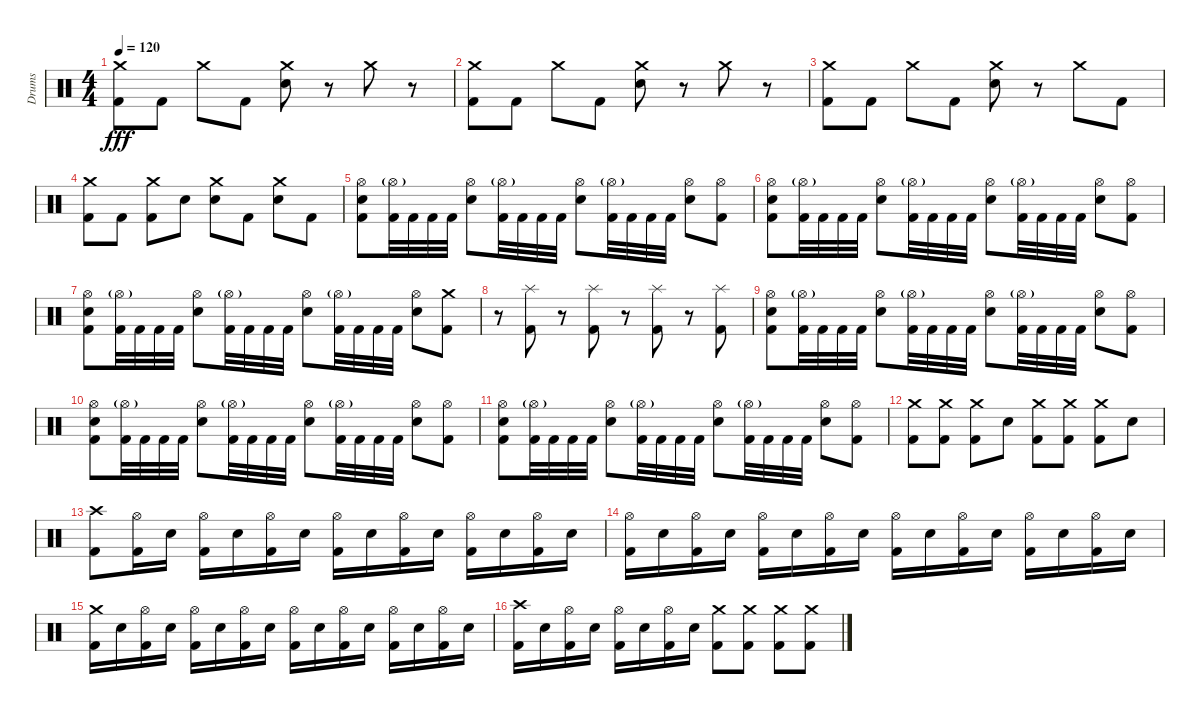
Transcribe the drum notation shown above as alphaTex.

\track ("Drums" "Drums") {instrument percussion}
\staff {score}
\articulation defaults
\ts (4 4)
\tempo 120
\clef neutral
\ks c
("Crash medium (hit)" "Kick (hit) 2").8{dy fff} "Kick (hit) 2".8 "Crash medium (hit)".8 "Kick (hit) 2".8 ("Crash medium (hit)" "Electric Snare (hit)").8 r.8 "Crash medium (hit)".8 r.8 |
("Crash medium (hit)" "Kick (hit) 2").8 "Kick (hit) 2".8 "Crash medium (hit)".8 "Kick (hit) 2".8 ("Crash medium (hit)" "Electric Snare (hit)").8 r.8 "Crash medium (hit)".8 r.8 |
("Crash medium (hit)" "Kick (hit) 2").8 "Kick (hit) 2".8 "Crash medium (hit)".8 "Kick (hit) 2".8 ("Crash medium (hit)" "Electric Snare (hit)").8 r.8 "Crash medium (hit)".8 "Kick (hit) 2".8 |
("Crash medium (hit)" "Kick (hit) 2").8 "Kick (hit) 2".8 ("Crash medium (hit)" "Kick (hit) 2").8 "Electric Snare (hit)".8 ("Crash medium (hit)" "Electric Snare (hit)").8 "Kick (hit) 2".8 ("Crash medium (hit)" "Electric Snare (hit)").8 "Kick (hit) 2".8 |
("Hi-Hat (open)" "Electric Snare (hit)" "Kick (hit) 2").8 ("Hi-Hat (open)"{g} "Kick (hit) 2").32 "Kick (hit) 2".32 "Kick (hit) 2".32 "Kick (hit) 2".32 ("Hi-Hat (open)" "Electric Snare (hit)").8 ("Hi-Hat (open)"{g} "Kick (hit) 2").32 "Kick (hit) 2".32 "Kick (hit) 2".32 "Kick (hit) 2".32 ("Hi-Hat (open)" "Electric Snare (hit)").8 ("Hi-Hat (open)"{g} "Kick (hit) 2").32 "Kick (hit) 2".32 "Kick (hit) 2".32 "Kick (hit) 2".32 ("Hi-Hat (open)" "Electric Snare (hit)").8 ("Hi-Hat (open)" "Kick (hit) 2").8 |
("Hi-Hat (open)" "Electric Snare (hit)" "Kick (hit) 2").8 ("Hi-Hat (open)"{g} "Kick (hit) 2").32 "Kick (hit) 2".32 "Kick (hit) 2".32 "Kick (hit) 2".32 ("Hi-Hat (open)" "Electric Snare (hit)").8 ("Hi-Hat (open)"{g} "Kick (hit) 2").32 "Kick (hit) 2".32 "Kick (hit) 2".32 "Kick (hit) 2".32 ("Hi-Hat (open)" "Electric Snare (hit)").8 ("Hi-Hat (open)"{g} "Kick (hit) 2").32 "Kick (hit) 2".32 "Kick (hit) 2".32 "Kick (hit) 2".32 ("Hi-Hat (open)" "Electric Snare (hit)").8 ("Hi-Hat (open)" "Kick (hit) 2").8 |
("Hi-Hat (open)" "Electric Snare (hit)" "Kick (hit) 2").8 ("Hi-Hat (open)"{g} "Kick (hit) 2").32 "Kick (hit) 2".32 "Kick (hit) 2".32 "Kick (hit) 2".32 ("Hi-Hat (open)" "Electric Snare (hit)").8 ("Hi-Hat (open)"{g} "Kick (hit) 2").32 "Kick (hit) 2".32 "Kick (hit) 2".32 "Kick (hit) 2".32 ("Hi-Hat (open)" "Electric Snare (hit)").8 ("Hi-Hat (open)"{g} "Kick (hit) 2").32 "Kick (hit) 2".32 "Kick (hit) 2".32 "Kick (hit) 2".32 ("Hi-Hat (open)" "Electric Snare (hit)").8 ("Crash medium (hit)" "Kick (hit) 2").8 |
r.8 ("Splash (hit)" "Kick (hit) 2").8 r.8 ("Splash (hit)" "Kick (hit) 2").8 r.8 ("Splash (hit)" "Kick (hit) 2").8 r.8 ("Splash (hit)" "Kick (hit) 2").8 |
("Hi-Hat (open)" "Electric Snare (hit)" "Kick (hit) 2").8 ("Hi-Hat (open)"{g} "Kick (hit) 2").32 "Kick (hit) 2".32 "Kick (hit) 2".32 "Kick (hit) 2".32 ("Hi-Hat (open)" "Electric Snare (hit)").8 ("Hi-Hat (open)"{g} "Kick (hit) 2").32 "Kick (hit) 2".32 "Kick (hit) 2".32 "Kick (hit) 2".32 ("Hi-Hat (open)" "Electric Snare (hit)").8 ("Hi-Hat (open)"{g} "Kick (hit) 2").32 "Kick (hit) 2".32 "Kick (hit) 2".32 "Kick (hit) 2".32 ("Hi-Hat (open)" "Electric Snare (hit)").8 ("Hi-Hat (open)" "Kick (hit) 2").8 |
("Hi-Hat (open)" "Electric Snare (hit)" "Kick (hit) 2").8 ("Hi-Hat (open)"{g} "Kick (hit) 2").32 "Kick (hit) 2".32 "Kick (hit) 2".32 "Kick (hit) 2".32 ("Hi-Hat (open)" "Electric Snare (hit)").8 ("Hi-Hat (open)"{g} "Kick (hit) 2").32 "Kick (hit) 2".32 "Kick (hit) 2".32 "Kick (hit) 2".32 ("Hi-Hat (open)" "Electric Snare (hit)").8 ("Hi-Hat (open)"{g} "Kick (hit) 2").32 "Kick (hit) 2".32 "Kick (hit) 2".32 "Kick (hit) 2".32 ("Hi-Hat (open)" "Electric Snare (hit)").8 ("Hi-Hat (open)" "Kick (hit) 2").8 |
("Hi-Hat (open)" "Electric Snare (hit)" "Kick (hit) 2").8 ("Hi-Hat (open)"{g} "Kick (hit) 2").32 "Kick (hit) 2".32 "Kick (hit) 2".32 "Kick (hit) 2".32 ("Hi-Hat (open)" "Electric Snare (hit)").8 ("Hi-Hat (open)"{g} "Kick (hit) 2").32 "Kick (hit) 2".32 "Kick (hit) 2".32 "Kick (hit) 2".32 ("Hi-Hat (open)" "Electric Snare (hit)").8 ("Hi-Hat (open)"{g} "Kick (hit) 2").32 "Kick (hit) 2".32 "Kick (hit) 2".32 "Kick (hit) 2".32 ("Hi-Hat (open)" "Electric Snare (hit)").8 ("Hi-Hat (open)" "Kick (hit) 2").8 |
("Crash medium (hit)" "Kick (hit) 2").8 ("Crash medium (hit)" "Kick (hit) 2").8 ("Crash medium (hit)" "Kick (hit) 2").8 "Electric Snare (hit)".8 ("Crash medium (hit)" "Kick (hit) 2").8 ("Crash medium (hit)" "Kick (hit) 2").8 ("Crash medium (hit)" "Kick (hit) 2").8 "Electric Snare (hit)".8 |
("Crash high (hit)" "Kick (hit) 2").8 ("Hi-Hat (open)" "Kick (hit) 2").16 "Electric Snare (hit)".16 ("Hi-Hat (open)" "Kick (hit) 2").16 "Electric Snare (hit)".16 ("Hi-Hat (open)" "Kick (hit) 2").16 "Electric Snare (hit)".16 ("Hi-Hat (open)" "Kick (hit) 2").16 "Electric Snare (hit)".16 ("Hi-Hat (open)" "Kick (hit) 2").16 "Electric Snare (hit)".16 ("Hi-Hat (open)" "Kick (hit) 2").16 "Electric Snare (hit)".16 ("Hi-Hat (open)" "Kick (hit) 2").16 "Electric Snare (hit)".16 |
("Hi-Hat (open)" "Kick (hit) 2").16 "Electric Snare (hit)".16 ("Hi-Hat (open)" "Kick (hit) 2").16 "Electric Snare (hit)".16 ("Hi-Hat (open)" "Kick (hit) 2").16 "Electric Snare (hit)".16 ("Hi-Hat (open)" "Kick (hit) 2").16 "Electric Snare (hit)".16 ("Hi-Hat (open)" "Kick (hit) 2").16 "Electric Snare (hit)".16 ("Hi-Hat (open)" "Kick (hit) 2").16 "Electric Snare (hit)".16 ("Hi-Hat (open)" "Kick (hit) 2").16 "Electric Snare (hit)".16 ("Hi-Hat (open)" "Kick (hit) 2").16 "Electric Snare (hit)".16 |
("Crash medium (hit)" "Kick (hit) 2").16 "Electric Snare (hit)".16 ("Hi-Hat (open)" "Kick (hit) 2").16 "Electric Snare (hit)".16 ("Hi-Hat (open)" "Kick (hit) 2").16 "Electric Snare (hit)".16 ("Hi-Hat (open)" "Kick (hit) 2").16 "Electric Snare (hit)".16 ("Hi-Hat (open)" "Kick (hit) 2").16 "Electric Snare (hit)".16 ("Hi-Hat (open)" "Kick (hit) 2").16 "Electric Snare (hit)".16 ("Hi-Hat (open)" "Kick (hit) 2").16 "Electric Snare (hit)".16 ("Hi-Hat (open)" "Kick (hit) 2").16 "Electric Snare (hit)".16 |
("Crash high (hit)" "Kick (hit) 2").16 "Electric Snare (hit)".16 ("Hi-Hat (open)" "Kick (hit) 2").16 "Electric Snare (hit)".16 ("Hi-Hat (open)" "Kick (hit) 2").16 "Electric Snare (hit)".16 ("Hi-Hat (open)" "Kick (hit) 2").16 "Electric Snare (hit)".16 ("Crash medium (hit)" "Kick (hit) 2").8 ("Crash medium (hit)" "Kick (hit) 2").8 ("Crash medium (hit)" "Kick (hit) 2").8 ("Crash medium (hit)" "Kick (hit) 2").8
